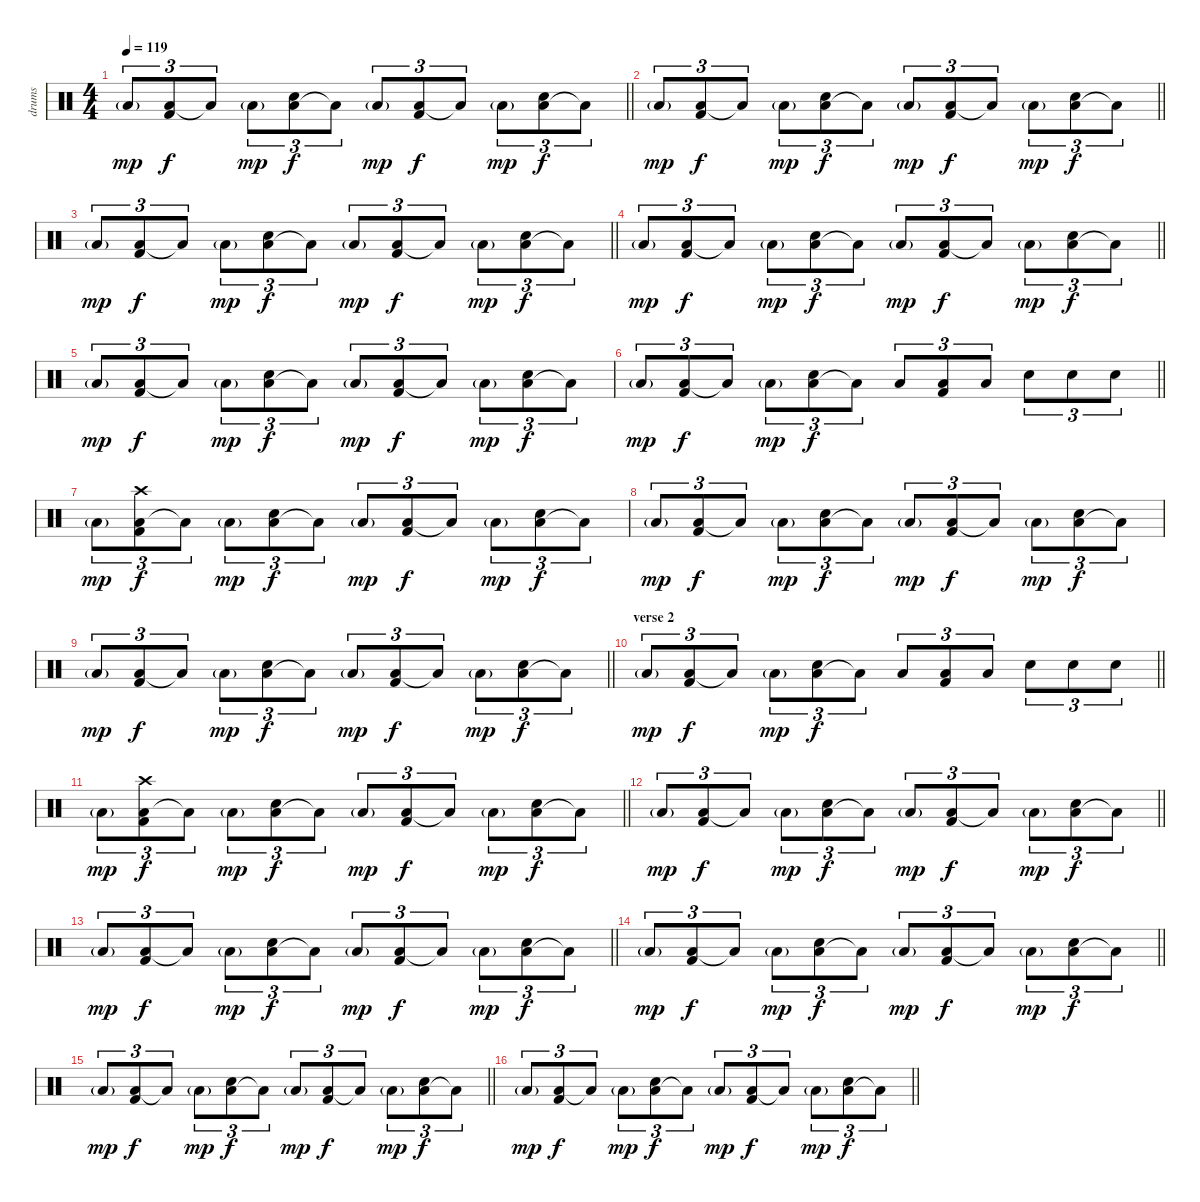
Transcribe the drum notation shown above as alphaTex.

\track ("drums" "drums") {instrument percussion}
\staff {score}
\articulation defaults
\ts (4 4)
\tempo 119
\clef neutral
\barLineRight lightlight
\ks c "Low Floor Tom (hit)"{g}.8{tu (3 2) dy mp}
("Low Floor Tom (hit)" "Kick (hit) 2").8{tu (3 2) dy f} "Low Floor Tom (hit)"{t}.8{tu (3 2)} "Low Floor Tom (hit)"{g}.8{tu (3 2) dy mp} ("Low Floor Tom (hit)" "Electric Snare (hit)").8{tu (3 2) dy f} "Low Floor Tom (hit)"{t}.8{tu (3 2)} "Low Floor Tom (hit)"{g}.8{tu (3 2) dy mp} ("Low Floor Tom (hit)" "Kick (hit) 2").8{tu (3 2) dy f} "Low Floor Tom (hit)"{t}.8{tu (3 2)} "Low Floor Tom (hit)"{g}.8{tu (3 2) dy mp} ("Low Floor Tom (hit)" "Electric Snare (hit)").8{tu (3 2) dy f} "Low Floor Tom (hit)"{t}.8{tu (3 2)} |
\barLineRight lightlight "Low Floor Tom (hit)"{g}.8{tu (3 2) dy mp}
("Low Floor Tom (hit)" "Kick (hit) 2").8{tu (3 2) dy f} "Low Floor Tom (hit)"{t}.8{tu (3 2)} "Low Floor Tom (hit)"{g}.8{tu (3 2) dy mp} ("Low Floor Tom (hit)" "Electric Snare (hit)").8{tu (3 2) dy f} "Low Floor Tom (hit)"{t}.8{tu (3 2)} "Low Floor Tom (hit)"{g}.8{tu (3 2) dy mp} ("Low Floor Tom (hit)" "Kick (hit) 2").8{tu (3 2) dy f} "Low Floor Tom (hit)"{t}.8{tu (3 2)} "Low Floor Tom (hit)"{g}.8{tu (3 2) dy mp} ("Low Floor Tom (hit)" "Electric Snare (hit)").8{tu (3 2) dy f} "Low Floor Tom (hit)"{t}.8{tu (3 2)} |
\barLineRight lightlight "Low Floor Tom (hit)"{g}.8{tu (3 2) dy mp}
("Low Floor Tom (hit)" "Kick (hit) 2").8{tu (3 2) dy f} "Low Floor Tom (hit)"{t}.8{tu (3 2)} "Low Floor Tom (hit)"{g}.8{tu (3 2) dy mp} ("Low Floor Tom (hit)" "Electric Snare (hit)").8{tu (3 2) dy f} "Low Floor Tom (hit)"{t}.8{tu (3 2)} "Low Floor Tom (hit)"{g}.8{tu (3 2) dy mp} ("Low Floor Tom (hit)" "Kick (hit) 2").8{tu (3 2) dy f} "Low Floor Tom (hit)"{t}.8{tu (3 2)} "Low Floor Tom (hit)"{g}.8{tu (3 2) dy mp} ("Low Floor Tom (hit)" "Electric Snare (hit)").8{tu (3 2) dy f} "Low Floor Tom (hit)"{t}.8{tu (3 2)} |
\barLineRight lightlight "Low Floor Tom (hit)"{g}.8{tu (3 2) dy mp}
("Low Floor Tom (hit)" "Kick (hit) 2").8{tu (3 2) dy f} "Low Floor Tom (hit)"{t}.8{tu (3 2)} "Low Floor Tom (hit)"{g}.8{tu (3 2) dy mp} ("Low Floor Tom (hit)" "Electric Snare (hit)").8{tu (3 2) dy f} "Low Floor Tom (hit)"{t}.8{tu (3 2)} "Low Floor Tom (hit)"{g}.8{tu (3 2) dy mp} ("Low Floor Tom (hit)" "Kick (hit) 2").8{tu (3 2) dy f} "Low Floor Tom (hit)"{t}.8{tu (3 2)} "Low Floor Tom (hit)"{g}.8{tu (3 2) dy mp} ("Low Floor Tom (hit)" "Electric Snare (hit)").8{tu (3 2) dy f} "Low Floor Tom (hit)"{t}.8{tu (3 2)} |
"Low Floor Tom (hit)"{g}.8{tu (3 2) dy mp} ("Low Floor Tom (hit)" "Kick (hit) 2").8{tu (3 2) dy f} "Low Floor Tom (hit)"{t}.8{tu (3 2)} "Low Floor Tom (hit)"{g}.8{tu (3 2) dy mp} ("Low Floor Tom (hit)" "Electric Snare (hit)").8{tu (3 2) dy f} "Low Floor Tom (hit)"{t}.8{tu (3 2)} "Low Floor Tom (hit)"{g}.8{tu (3 2) dy mp} ("Low Floor Tom (hit)" "Kick (hit) 2").8{tu (3 2) dy f} "Low Floor Tom (hit)"{t}.8{tu (3 2)} "Low Floor Tom (hit)"{g}.8{tu (3 2) dy mp} ("Low Floor Tom (hit)" "Electric Snare (hit)").8{tu (3 2) dy f} "Low Floor Tom (hit)"{t}.8{tu (3 2)} |
\barLineRight lightlight "Low Floor Tom (hit)"{g}.8{tu (3 2) dy mp}
("Low Floor Tom (hit)" "Kick (hit) 2").8{tu (3 2) dy f} "Low Floor Tom (hit)"{t}.8{tu (3 2)} "Low Floor Tom (hit)"{g}.8{tu (3 2) dy mp} ("Low Floor Tom (hit)" "Electric Snare (hit)").8{tu (3 2) dy f} "Low Floor Tom (hit)"{t}.8{tu (3 2)} "Low Floor Tom (hit)".8{tu (3 2)} ("Low Floor Tom (hit)" "Kick (hit) 2").8{tu (3 2)} "Low Floor Tom (hit)".8{tu (3 2)} "Electric Snare (hit)".8{tu (3 2)} "Electric Snare (hit)".8{tu (3 2)} "Electric Snare (hit)".8{tu (3 2)} |
"Low Floor Tom (hit)"{g}.8{tu (3 2) dy mp} ("Low Floor Tom (hit)" "Kick (hit) 2" "Crash high (hit)").8{tu (3 2) dy f} "Low Floor Tom (hit)"{t}.8{tu (3 2)} "Low Floor Tom (hit)"{g}.8{tu (3 2) dy mp} ("Low Floor Tom (hit)" "Electric Snare (hit)").8{tu (3 2) dy f} "Low Floor Tom (hit)"{t}.8{tu (3 2)} "Low Floor Tom (hit)"{g}.8{tu (3 2) dy mp} ("Low Floor Tom (hit)" "Kick (hit) 2").8{tu (3 2) dy f} "Low Floor Tom (hit)"{t}.8{tu (3 2)} "Low Floor Tom (hit)"{g}.8{tu (3 2) dy mp} ("Low Floor Tom (hit)" "Electric Snare (hit)").8{tu (3 2) dy f} "Low Floor Tom (hit)"{t}.8{tu (3 2)} |
"Low Floor Tom (hit)"{g}.8{tu (3 2) dy mp} ("Low Floor Tom (hit)" "Kick (hit) 2").8{tu (3 2) dy f} "Low Floor Tom (hit)"{t}.8{tu (3 2)} "Low Floor Tom (hit)"{g}.8{tu (3 2) dy mp} ("Low Floor Tom (hit)" "Electric Snare (hit)").8{tu (3 2) dy f} "Low Floor Tom (hit)"{t}.8{tu (3 2)} "Low Floor Tom (hit)"{g}.8{tu (3 2) dy mp} ("Low Floor Tom (hit)" "Kick (hit) 2").8{tu (3 2) dy f} "Low Floor Tom (hit)"{t}.8{tu (3 2)} "Low Floor Tom (hit)"{g}.8{tu (3 2) dy mp} ("Low Floor Tom (hit)" "Electric Snare (hit)").8{tu (3 2) dy f} "Low Floor Tom (hit)"{t}.8{tu (3 2)} |
\barLineRight lightlight "Low Floor Tom (hit)"{g}.8{tu (3 2) dy mp}
("Low Floor Tom (hit)" "Kick (hit) 2").8{tu (3 2) dy f} "Low Floor Tom (hit)"{t}.8{tu (3 2)} "Low Floor Tom (hit)"{g}.8{tu (3 2) dy mp} ("Low Floor Tom (hit)" "Electric Snare (hit)").8{tu (3 2) dy f} "Low Floor Tom (hit)"{t}.8{tu (3 2)} "Low Floor Tom (hit)"{g}.8{tu (3 2) dy mp} ("Low Floor Tom (hit)" "Kick (hit) 2").8{tu (3 2) dy f} "Low Floor Tom (hit)"{t}.8{tu (3 2)} "Low Floor Tom (hit)"{g}.8{tu (3 2) dy mp} ("Low Floor Tom (hit)" "Electric Snare (hit)").8{tu (3 2) dy f} "Low Floor Tom (hit)"{t}.8{tu (3 2)} |
\section ("" "verse 2")
\barLineRight lightlight "Low Floor Tom (hit)"{g}.8{tu (3 2) dy mp}
("Low Floor Tom (hit)" "Kick (hit) 2").8{tu (3 2) dy f} "Low Floor Tom (hit)"{t}.8{tu (3 2)} "Low Floor Tom (hit)"{g}.8{tu (3 2) dy mp} ("Low Floor Tom (hit)" "Electric Snare (hit)").8{tu (3 2) dy f} "Low Floor Tom (hit)"{t}.8{tu (3 2)} "Low Floor Tom (hit)".8{tu (3 2)} ("Low Floor Tom (hit)" "Kick (hit) 2").8{tu (3 2)} "Low Floor Tom (hit)".8{tu (3 2)} "Electric Snare (hit)".8{tu (3 2)} "Electric Snare (hit)".8{tu (3 2)} "Electric Snare (hit)".8{tu (3 2)} |
\barLineRight lightlight "Low Floor Tom (hit)"{g}.8{tu (3 2) dy mp}
("Low Floor Tom (hit)" "Kick (hit) 2" "Crash high (hit)").8{tu (3 2) dy f} "Low Floor Tom (hit)"{t}.8{tu (3 2)} "Low Floor Tom (hit)"{g}.8{tu (3 2) dy mp} ("Low Floor Tom (hit)" "Electric Snare (hit)").8{tu (3 2) dy f} "Low Floor Tom (hit)"{t}.8{tu (3 2)} "Low Floor Tom (hit)"{g}.8{tu (3 2) dy mp} ("Low Floor Tom (hit)" "Kick (hit) 2").8{tu (3 2) dy f} "Low Floor Tom (hit)"{t}.8{tu (3 2)} "Low Floor Tom (hit)"{g}.8{tu (3 2) dy mp} ("Low Floor Tom (hit)" "Electric Snare (hit)").8{tu (3 2) dy f} "Low Floor Tom (hit)"{t}.8{tu (3 2)} |
\barLineRight lightlight "Low Floor Tom (hit)"{g}.8{tu (3 2) dy mp}
("Low Floor Tom (hit)" "Kick (hit) 2").8{tu (3 2) dy f} "Low Floor Tom (hit)"{t}.8{tu (3 2)} "Low Floor Tom (hit)"{g}.8{tu (3 2) dy mp} ("Low Floor Tom (hit)" "Electric Snare (hit)").8{tu (3 2) dy f} "Low Floor Tom (hit)"{t}.8{tu (3 2)} "Low Floor Tom (hit)"{g}.8{tu (3 2) dy mp} ("Low Floor Tom (hit)" "Kick (hit) 2").8{tu (3 2) dy f} "Low Floor Tom (hit)"{t}.8{tu (3 2)} "Low Floor Tom (hit)"{g}.8{tu (3 2) dy mp} ("Low Floor Tom (hit)" "Electric Snare (hit)").8{tu (3 2) dy f} "Low Floor Tom (hit)"{t}.8{tu (3 2)} |
\barLineRight lightlight "Low Floor Tom (hit)"{g}.8{tu (3 2) dy mp}
("Low Floor Tom (hit)" "Kick (hit) 2").8{tu (3 2) dy f} "Low Floor Tom (hit)"{t}.8{tu (3 2)} "Low Floor Tom (hit)"{g}.8{tu (3 2) dy mp} ("Low Floor Tom (hit)" "Electric Snare (hit)").8{tu (3 2) dy f} "Low Floor Tom (hit)"{t}.8{tu (3 2)} "Low Floor Tom (hit)"{g}.8{tu (3 2) dy mp} ("Low Floor Tom (hit)" "Kick (hit) 2").8{tu (3 2) dy f} "Low Floor Tom (hit)"{t}.8{tu (3 2)} "Low Floor Tom (hit)"{g}.8{tu (3 2) dy mp} ("Low Floor Tom (hit)" "Electric Snare (hit)").8{tu (3 2) dy f} "Low Floor Tom (hit)"{t}.8{tu (3 2)} |
\barLineRight lightlight "Low Floor Tom (hit)"{g}.8{tu (3 2) dy mp}
("Low Floor Tom (hit)" "Kick (hit) 2").8{tu (3 2) dy f} "Low Floor Tom (hit)"{t}.8{tu (3 2)} "Low Floor Tom (hit)"{g}.8{tu (3 2) dy mp} ("Low Floor Tom (hit)" "Electric Snare (hit)").8{tu (3 2) dy f} "Low Floor Tom (hit)"{t}.8{tu (3 2)} "Low Floor Tom (hit)"{g}.8{tu (3 2) dy mp} ("Low Floor Tom (hit)" "Kick (hit) 2").8{tu (3 2) dy f} "Low Floor Tom (hit)"{t}.8{tu (3 2)} "Low Floor Tom (hit)"{g}.8{tu (3 2) dy mp} ("Low Floor Tom (hit)" "Electric Snare (hit)").8{tu (3 2) dy f} "Low Floor Tom (hit)"{t}.8{tu (3 2)} |
\barLineRight lightlight "Low Floor Tom (hit)"{g}.8{tu (3 2) dy mp}
("Low Floor Tom (hit)" "Kick (hit) 2").8{tu (3 2) dy f} "Low Floor Tom (hit)"{t}.8{tu (3 2)} "Low Floor Tom (hit)"{g}.8{tu (3 2) dy mp} ("Low Floor Tom (hit)" "Electric Snare (hit)").8{tu (3 2) dy f} "Low Floor Tom (hit)"{t}.8{tu (3 2)} "Low Floor Tom (hit)"{g}.8{tu (3 2) dy mp} ("Low Floor Tom (hit)" "Kick (hit) 2").8{tu (3 2) dy f} "Low Floor Tom (hit)"{t}.8{tu (3 2)} "Low Floor Tom (hit)"{g}.8{tu (3 2) dy mp} ("Low Floor Tom (hit)" "Electric Snare (hit)").8{tu (3 2) dy f} "Low Floor Tom (hit)"{t}.8{tu (3 2)} |
\barLineRight lightlight "Low Floor Tom (hit)"{g}.8{tu (3 2) dy mp}
("Low Floor Tom (hit)" "Kick (hit) 2").8{tu (3 2) dy f} "Low Floor Tom (hit)"{t}.8{tu (3 2)} "Low Floor Tom (hit)"{g}.8{tu (3 2) dy mp} ("Low Floor Tom (hit)" "Electric Snare (hit)").8{tu (3 2) dy f} "Low Floor Tom (hit)"{t}.8{tu (3 2)} "Low Floor Tom (hit)"{g}.8{tu (3 2) dy mp} ("Low Floor Tom (hit)" "Kick (hit) 2").8{tu (3 2) dy f} "Low Floor Tom (hit)"{t}.8{tu (3 2)} "Low Floor Tom (hit)"{g}.8{tu (3 2) dy mp} ("Low Floor Tom (hit)" "Electric Snare (hit)").8{tu (3 2) dy f} "Low Floor Tom (hit)"{t}.8{tu (3 2)}
